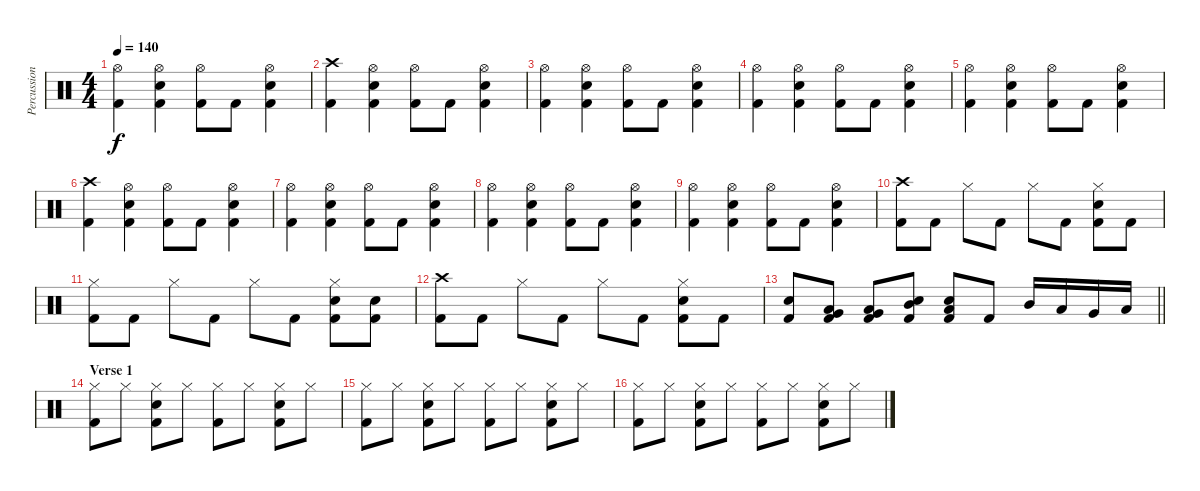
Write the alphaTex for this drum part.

\track ("Percussions" "Percussion") {instrument percussion}
\staff {score}
\articulation defaults
\ts (4 4)
\tempo 140
\clef neutral
\ks c
("Hi-Hat (open)" "Kick (hit) 2").4{dy f} ("Hi-Hat (open)" "Electric Snare (hit)" "Kick (hit) 2").4 ("Hi-Hat (open)" "Kick (hit) 2").8 "Kick (hit) 2".8 ("Hi-Hat (open)" "Electric Snare (hit)" "Kick (hit) 2").4 |
("Crash high (hit)" "Kick (hit) 2").4 ("Hi-Hat (open)" "Electric Snare (hit)" "Kick (hit) 2").4 ("Hi-Hat (open)" "Kick (hit) 2").8 "Kick (hit) 2".8 ("Hi-Hat (open)" "Electric Snare (hit)" "Kick (hit) 2").4 |
("Hi-Hat (open)" "Kick (hit) 2").4 ("Hi-Hat (open)" "Electric Snare (hit)" "Kick (hit) 2").4 ("Hi-Hat (open)" "Kick (hit) 2").8 "Kick (hit) 2".8 ("Hi-Hat (open)" "Electric Snare (hit)" "Kick (hit) 2").4 |
("Hi-Hat (open)" "Kick (hit) 2").4 ("Hi-Hat (open)" "Electric Snare (hit)" "Kick (hit) 2").4 ("Hi-Hat (open)" "Kick (hit) 2").8 "Kick (hit) 2".8 ("Hi-Hat (open)" "Electric Snare (hit)" "Kick (hit) 2").4 |
("Hi-Hat (open)" "Kick (hit) 2").4 ("Hi-Hat (open)" "Electric Snare (hit)" "Kick (hit) 2").4 ("Hi-Hat (open)" "Kick (hit) 2").8 "Kick (hit) 2".8 ("Hi-Hat (open)" "Electric Snare (hit)" "Kick (hit) 2").4 |
("Crash high (hit)" "Kick (hit) 2").4 ("Hi-Hat (open)" "Electric Snare (hit)" "Kick (hit) 2").4 ("Hi-Hat (open)" "Kick (hit) 2").8 "Kick (hit) 2".8 ("Hi-Hat (open)" "Electric Snare (hit)" "Kick (hit) 2").4 |
("Hi-Hat (open)" "Kick (hit) 2").4 ("Hi-Hat (open)" "Electric Snare (hit)" "Kick (hit) 2").4 ("Hi-Hat (open)" "Kick (hit) 2").8 "Kick (hit) 2".8 ("Hi-Hat (open)" "Electric Snare (hit)" "Kick (hit) 2").4 |
("Hi-Hat (open)" "Kick (hit) 2").4 ("Hi-Hat (open)" "Electric Snare (hit)" "Kick (hit) 2").4 ("Hi-Hat (open)" "Kick (hit) 2").8 "Kick (hit) 2".8 ("Hi-Hat (open)" "Electric Snare (hit)" "Kick (hit) 2").4 |
("Hi-Hat (open)" "Kick (hit) 2").4 ("Hi-Hat (open)" "Electric Snare (hit)" "Kick (hit) 2").4 ("Hi-Hat (open)" "Kick (hit) 2").8 "Kick (hit) 2".8 ("Hi-Hat (open)" "Electric Snare (hit)" "Kick (hit) 2").4 |
("Crash high (hit)" "Kick (hit) 2").8 "Kick (hit) 2".8 "Hi-Hat (closed)".8 "Kick (hit) 2".8 "Hi-Hat (closed)".8 "Kick (hit) 2".8 ("Hi-Hat (closed)" "Electric Snare (hit)" "Kick (hit) 2").8 "Kick (hit) 2".8 |
("Hi-Hat (closed)" "Kick (hit) 2").8 "Kick (hit) 2".8 "Hi-Hat (closed)".8 "Kick (hit) 2".8 "Hi-Hat (closed)".8 "Kick (hit) 2".8 ("Hi-Hat (closed)" "Electric Snare (hit)" "Kick (hit) 2").8 ("Electric Snare (hit)" "Kick (hit) 2").8 |
("Crash high (hit)" "Kick (hit) 2").8 "Kick (hit) 2".8 "Hi-Hat (closed)".8 "Kick (hit) 2".8 "Hi-Hat (closed)".8 "Kick (hit) 2".8 ("Hi-Hat (closed)" "Electric Snare (hit)" "Kick (hit) 2").8 "Kick (hit) 2".8 |
\barLineRight lightlight
("Electric Snare (hit)" "Kick (hit) 2").8 ("Low Floor Tom (hit)" "Very Low Tom (hit)" "Kick (hit) 2").8 ("Low Floor Tom (hit)" "Very Low Tom (hit)" "Kick (hit) 2").8 ("Electric Snare (hit)" "Mid Tom (hit)" "Kick (hit) 2").8 ("Electric Snare (hit)" "Low Tom (hit)" "Kick (hit) 2").8 "Kick (hit) 2".8 "Mid Tom (hit)".16 "Low Tom (hit)".16 "Very Low Tom (hit)".16 "Low Floor Tom (hit)".16 |
\section ("" "Verse 1")
("Hi-Hat (closed)" "Kick (hit) 2").8 "Hi-Hat (closed)".8 ("Hi-Hat (closed)" "Snare (hit) 2" "Kick (hit) 2").8 "Hi-Hat (closed)".8 ("Hi-Hat (closed)" "Kick (hit) 2").8 "Hi-Hat (closed)".8 ("Hi-Hat (closed)" "Snare (hit) 2" "Kick (hit) 2").8 "Hi-Hat (closed)".8 |
("Hi-Hat (closed)" "Kick (hit) 2").8 "Hi-Hat (closed)".8 ("Hi-Hat (closed)" "Snare (hit) 2" "Kick (hit) 2").8 "Hi-Hat (closed)".8 ("Hi-Hat (closed)" "Kick (hit) 2").8 "Hi-Hat (closed)".8 ("Hi-Hat (closed)" "Snare (hit) 2" "Kick (hit) 2").8 "Hi-Hat (closed)".8 |
("Hi-Hat (closed)" "Kick (hit) 2").8 "Hi-Hat (closed)".8 ("Hi-Hat (closed)" "Snare (hit) 2" "Kick (hit) 2").8 "Hi-Hat (closed)".8 ("Hi-Hat (closed)" "Kick (hit) 2").8 "Hi-Hat (closed)".8 ("Hi-Hat (closed)" "Snare (hit) 2" "Kick (hit) 2").8 "Hi-Hat (closed)".8
